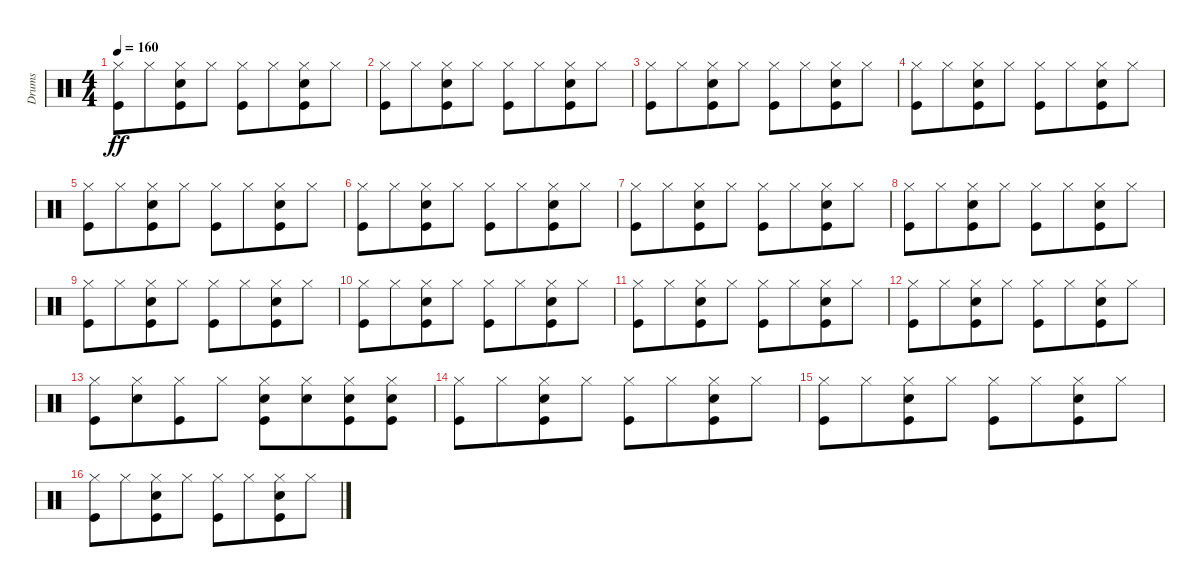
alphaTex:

\track ("Drums" "Drums") {instrument percussion}
\staff {score}
\articulation defaults
\ts (4 4)
\tempo 160
\clef neutral
\ks c
("Hi-Hat (closed)" "Kick (hit)").8{dy ff} "Hi-Hat (closed)".8{beam merge} ("Hi-Hat (closed)" "Snare (hit) 2" "Kick (hit)").8 "Hi-Hat (closed)".8 ("Hi-Hat (closed)" "Kick (hit)").8 "Hi-Hat (closed)".8{beam merge} ("Hi-Hat (closed)" "Snare (hit) 2" "Kick (hit)").8 "Hi-Hat (closed)".8 |
("Hi-Hat (closed)" "Kick (hit)").8 "Hi-Hat (closed)".8{beam merge} ("Hi-Hat (closed)" "Snare (hit) 2" "Kick (hit)").8 "Hi-Hat (closed)".8 ("Hi-Hat (closed)" "Kick (hit)").8 "Hi-Hat (closed)".8{beam merge} ("Hi-Hat (closed)" "Snare (hit) 2" "Kick (hit)").8 "Hi-Hat (closed)".8 |
("Hi-Hat (closed)" "Kick (hit)").8 "Hi-Hat (closed)".8{beam merge} ("Hi-Hat (closed)" "Snare (hit) 2" "Kick (hit)").8 "Hi-Hat (closed)".8 ("Hi-Hat (closed)" "Kick (hit)").8 "Hi-Hat (closed)".8{beam merge} ("Hi-Hat (closed)" "Snare (hit) 2" "Kick (hit)").8 "Hi-Hat (closed)".8 |
("Hi-Hat (closed)" "Kick (hit)").8 "Hi-Hat (closed)".8{beam merge} ("Hi-Hat (closed)" "Snare (hit) 2" "Kick (hit)").8 "Hi-Hat (closed)".8 ("Hi-Hat (closed)" "Kick (hit)").8 "Hi-Hat (closed)".8{beam merge} ("Hi-Hat (closed)" "Snare (hit) 2" "Kick (hit)").8 "Hi-Hat (closed)".8 |
("Hi-Hat (closed)" "Kick (hit)").8 "Hi-Hat (closed)".8{beam merge} ("Hi-Hat (closed)" "Snare (hit) 2" "Kick (hit)").8 "Hi-Hat (closed)".8 ("Hi-Hat (closed)" "Kick (hit)").8 "Hi-Hat (closed)".8{beam merge} ("Hi-Hat (closed)" "Snare (hit) 2" "Kick (hit)").8 "Hi-Hat (closed)".8 |
("Hi-Hat (closed)" "Kick (hit)").8 "Hi-Hat (closed)".8{beam merge} ("Hi-Hat (closed)" "Snare (hit) 2" "Kick (hit)").8 "Hi-Hat (closed)".8 ("Hi-Hat (closed)" "Kick (hit)").8 "Hi-Hat (closed)".8{beam merge} ("Hi-Hat (closed)" "Snare (hit) 2" "Kick (hit)").8 "Hi-Hat (closed)".8 |
("Hi-Hat (closed)" "Kick (hit)").8 "Hi-Hat (closed)".8{beam merge} ("Hi-Hat (closed)" "Snare (hit) 2" "Kick (hit)").8 "Hi-Hat (closed)".8 ("Hi-Hat (closed)" "Kick (hit)").8 "Hi-Hat (closed)".8{beam merge} ("Hi-Hat (closed)" "Snare (hit) 2" "Kick (hit)").8 "Hi-Hat (closed)".8 |
("Hi-Hat (closed)" "Kick (hit)").8 "Hi-Hat (closed)".8{beam merge} ("Hi-Hat (closed)" "Snare (hit) 2" "Kick (hit)").8 "Hi-Hat (closed)".8 ("Hi-Hat (closed)" "Kick (hit)").8 "Hi-Hat (closed)".8{beam merge} ("Hi-Hat (closed)" "Snare (hit) 2" "Kick (hit)").8 "Hi-Hat (closed)".8 |
("Hi-Hat (closed)" "Kick (hit)").8 "Hi-Hat (closed)".8{beam merge} ("Hi-Hat (closed)" "Snare (hit) 2" "Kick (hit)").8 "Hi-Hat (closed)".8 ("Hi-Hat (closed)" "Kick (hit)").8 "Hi-Hat (closed)".8{beam merge} ("Hi-Hat (closed)" "Snare (hit) 2" "Kick (hit)").8 "Hi-Hat (closed)".8 |
("Hi-Hat (closed)" "Kick (hit)").8 "Hi-Hat (closed)".8{beam merge} ("Hi-Hat (closed)" "Snare (hit) 2" "Kick (hit)").8 "Hi-Hat (closed)".8 ("Hi-Hat (closed)" "Kick (hit)").8 "Hi-Hat (closed)".8{beam merge} ("Hi-Hat (closed)" "Snare (hit) 2" "Kick (hit)").8 "Hi-Hat (closed)".8 |
("Hi-Hat (closed)" "Kick (hit)").8 "Hi-Hat (closed)".8{beam merge} ("Hi-Hat (closed)" "Snare (hit) 2" "Kick (hit)").8 "Hi-Hat (closed)".8 ("Hi-Hat (closed)" "Kick (hit)").8 "Hi-Hat (closed)".8{beam merge} ("Hi-Hat (closed)" "Snare (hit) 2" "Kick (hit)").8 "Hi-Hat (closed)".8 |
("Hi-Hat (closed)" "Kick (hit)").8 "Hi-Hat (closed)".8{beam merge} ("Hi-Hat (closed)" "Snare (hit) 2" "Kick (hit)").8 "Hi-Hat (closed)".8 ("Hi-Hat (closed)" "Kick (hit)").8 "Hi-Hat (closed)".8{beam merge} ("Hi-Hat (closed)" "Snare (hit) 2" "Kick (hit)").8 "Hi-Hat (closed)".8 |
("Hi-Hat (closed)" "Kick (hit)").8 ("Hi-Hat (closed)" "Snare (hit) 2").8{beam merge} ("Hi-Hat (closed)" "Kick (hit)").8 "Hi-Hat (closed)".8 ("Hi-Hat (closed)" "Snare (hit) 2" "Kick (hit)").8 ("Hi-Hat (closed)" "Snare (hit) 2").8{beam merge} ("Hi-Hat (closed)" "Snare (hit) 2" "Kick (hit)").8 ("Hi-Hat (closed)" "Snare (hit) 2" "Kick (hit)").8 |
("Hi-Hat (closed)" "Kick (hit)").8 "Hi-Hat (closed)".8{beam merge} ("Hi-Hat (closed)" "Snare (hit) 2" "Kick (hit)").8 "Hi-Hat (closed)".8 ("Hi-Hat (closed)" "Kick (hit)").8 "Hi-Hat (closed)".8{beam merge} ("Hi-Hat (closed)" "Snare (hit) 2" "Kick (hit)").8 "Hi-Hat (closed)".8 |
("Hi-Hat (closed)" "Kick (hit)").8 "Hi-Hat (closed)".8{beam merge} ("Hi-Hat (closed)" "Snare (hit) 2" "Kick (hit)").8 "Hi-Hat (closed)".8 ("Hi-Hat (closed)" "Kick (hit)").8 "Hi-Hat (closed)".8{beam merge} ("Hi-Hat (closed)" "Snare (hit) 2" "Kick (hit)").8 "Hi-Hat (closed)".8 |
("Hi-Hat (closed)" "Kick (hit)").8 "Hi-Hat (closed)".8{beam merge} ("Hi-Hat (closed)" "Snare (hit) 2" "Kick (hit)").8 "Hi-Hat (closed)".8 ("Hi-Hat (closed)" "Kick (hit)").8 "Hi-Hat (closed)".8{beam merge} ("Hi-Hat (closed)" "Snare (hit) 2" "Kick (hit)").8 "Hi-Hat (closed)".8
